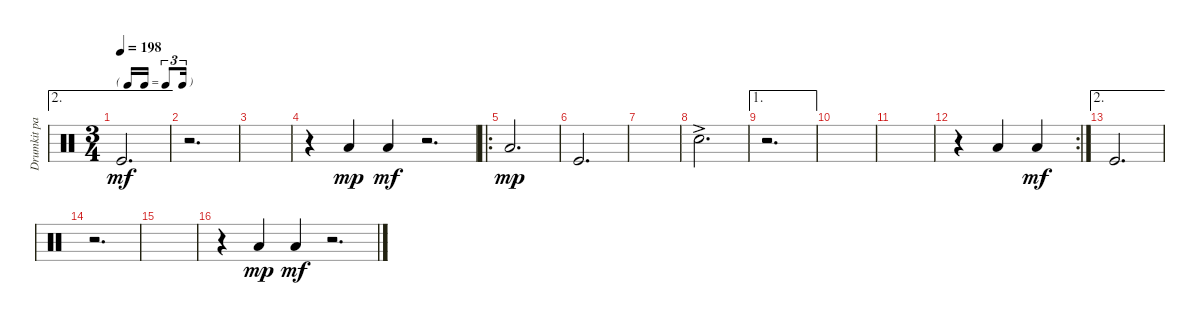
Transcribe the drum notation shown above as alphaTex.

\track ("Drumkit part 1" "Drumkit pa") {instrument percussion}
\staff {score}
\articulation defaults
\ae 2
\ts (3 4)
\tf triplet16th
\tempo 198
\clef neutral
\ks c "Kick (hit)".2{d dy mf}
|
r.2{d} |
|
r.4 "Low Floor Tom (hit)".4{dy mp} "Low Floor Tom (hit)".4{dy mf} r.2{d} |
\ro "Low Floor Tom (hit)".2{d dy mp}
|
"Kick (hit)".2{d} |
|
"Snare (hit) 2"{ac}.2{d} |
\ae 1
r.2{d} |
|
|
\rc 2
r.4 "Low Floor Tom (hit)".4 "Low Floor Tom (hit)".4{dy mf} |
\ae 2 "Kick (hit)".2{d}
|
r.2{d} |
|
r.4 "Low Floor Tom (hit)".4{dy mp} "Low Floor Tom (hit)".4{dy mf} r.2{d}
